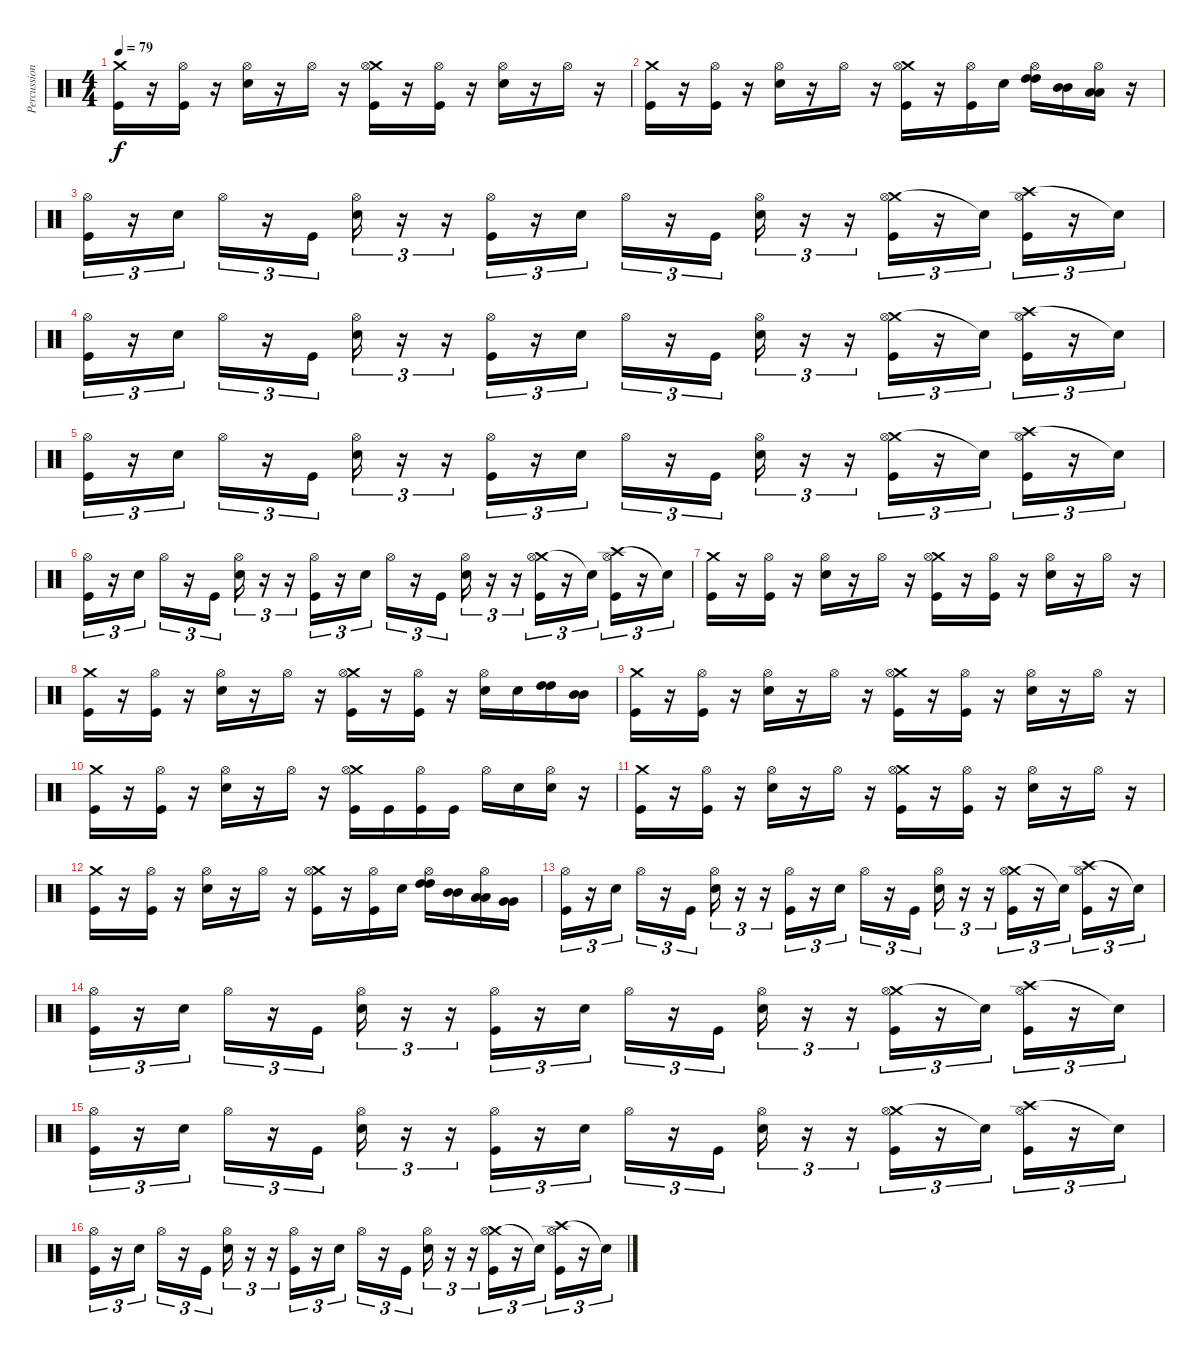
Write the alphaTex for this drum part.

\track ("Percussion" "Percussion") {instrument percussion}
\staff {score}
\articulation defaults
\ts (4 4)
\tempo 79
\clef neutral
\ks c
("Crash medium (hit)" "Kick (hit)").16{dy f} r.16 ("Hi-Hat (open)" "Kick (hit)").16 r.16 ("Hi-Hat (open)" "Electric Snare (hit)").16 r.16 "Hi-Hat (open)".16 r.16 ("Crash medium (hit)" "Hi-Hat (open)" "Kick (hit)").16 r.16 ("Hi-Hat (open)" "Kick (hit)").16 r.16 ("Hi-Hat (open)" "Electric Snare (hit)").16 r.16 "Hi-Hat (open)".16 r.16 |
("Crash medium (hit)" "Kick (hit)").16 r.16 ("Hi-Hat (open)" "Kick (hit)").16 r.16 ("Hi-Hat (open)" "Electric Snare (hit)").16 r.16 "Hi-Hat (open)".16 r.16 ("Crash medium (hit)" "Hi-Hat (open)" "Kick (hit)").16 r.16 ("Hi-Hat (open)" "Kick (hit)").16 "Electric Snare (hit)".16 ("Hi-Hat (open)" "High Tom (hit)" "High Tom (hit)").16 ("Mid Tom (hit)" "Mid Tom (hit)").16 ("Hi-Hat (open)" "Low Tom (hit)" "Low Tom (hit)").16 r.16 |
("Hi-Hat (open)" "Kick (hit)").16{tu (3 2)} r.16{tu (3 2)} "Electric Snare (hit)".16{tu (3 2)} "Hi-Hat (open)".16{tu (3 2)} r.16{tu (3 2)} "Kick (hit)".16{tu (3 2)} ("Hi-Hat (open)" "Electric Snare (hit)").16{tu (3 2)} r.16{tu (3 2)} r.16{tu (3 2)} ("Hi-Hat (open)" "Kick (hit)").16{tu (3 2)} r.16{tu (3 2)} "Electric Snare (hit)".16{tu (3 2)} "Hi-Hat (open)".16{tu (3 2)} r.16{tu (3 2)} "Kick (hit)".16{tu (3 2)} ("Hi-Hat (open)" "Electric Snare (hit)").16{tu (3 2)} r.16{tu (3 2)} r.16{tu (3 2)} ("Crash medium (hit)" "Hi-Hat (open)" "Kick (hit)").16{tu (3 2)} r.16{tu (3 2)} "Snare (hit)"{t}.16{tu (3 2)} ("Crash high (hit)" "Hi-Hat (open)" "Kick (hit)").16{tu (3 2)} r.16{tu (3 2)} "Snare (hit)"{t}.16{tu (3 2)} |
("Hi-Hat (open)" "Kick (hit)").16{tu (3 2)} r.16{tu (3 2)} "Electric Snare (hit)".16{tu (3 2)} "Hi-Hat (open)".16{tu (3 2)} r.16{tu (3 2)} "Kick (hit)".16{tu (3 2)} ("Hi-Hat (open)" "Electric Snare (hit)").16{tu (3 2)} r.16{tu (3 2)} r.16{tu (3 2)} ("Hi-Hat (open)" "Kick (hit)").16{tu (3 2)} r.16{tu (3 2)} "Electric Snare (hit)".16{tu (3 2)} "Hi-Hat (open)".16{tu (3 2)} r.16{tu (3 2)} "Kick (hit)".16{tu (3 2)} ("Hi-Hat (open)" "Electric Snare (hit)").16{tu (3 2)} r.16{tu (3 2)} r.16{tu (3 2)} ("Crash medium (hit)" "Hi-Hat (open)" "Kick (hit)").16{tu (3 2)} r.16{tu (3 2)} "Snare (hit)"{t}.16{tu (3 2)} ("Crash high (hit)" "Hi-Hat (open)" "Kick (hit)").16{tu (3 2)} r.16{tu (3 2)} "Snare (hit)"{t}.16{tu (3 2)} |
("Hi-Hat (open)" "Kick (hit)").16{tu (3 2)} r.16{tu (3 2)} "Electric Snare (hit)".16{tu (3 2)} "Hi-Hat (open)".16{tu (3 2)} r.16{tu (3 2)} "Kick (hit)".16{tu (3 2)} ("Hi-Hat (open)" "Electric Snare (hit)").16{tu (3 2)} r.16{tu (3 2)} r.16{tu (3 2)} ("Hi-Hat (open)" "Kick (hit)").16{tu (3 2)} r.16{tu (3 2)} "Electric Snare (hit)".16{tu (3 2)} "Hi-Hat (open)".16{tu (3 2)} r.16{tu (3 2)} "Kick (hit)".16{tu (3 2)} ("Hi-Hat (open)" "Electric Snare (hit)").16{tu (3 2)} r.16{tu (3 2)} r.16{tu (3 2)} ("Crash medium (hit)" "Hi-Hat (open)" "Kick (hit)").16{tu (3 2)} r.16{tu (3 2)} "Snare (hit)"{t}.16{tu (3 2)} ("Crash high (hit)" "Hi-Hat (open)" "Kick (hit)").16{tu (3 2)} r.16{tu (3 2)} "Snare (hit)"{t}.16{tu (3 2)} |
("Hi-Hat (open)" "Kick (hit)").16{tu (3 2)} r.16{tu (3 2)} "Electric Snare (hit)".16{tu (3 2)} "Hi-Hat (open)".16{tu (3 2)} r.16{tu (3 2)} "Kick (hit)".16{tu (3 2)} ("Hi-Hat (open)" "Electric Snare (hit)").16{tu (3 2)} r.16{tu (3 2)} r.16{tu (3 2)} ("Hi-Hat (open)" "Kick (hit)").16{tu (3 2)} r.16{tu (3 2)} "Electric Snare (hit)".16{tu (3 2)} "Hi-Hat (open)".16{tu (3 2)} r.16{tu (3 2)} "Kick (hit)".16{tu (3 2)} ("Hi-Hat (open)" "Electric Snare (hit)").16{tu (3 2)} r.16{tu (3 2)} r.16{tu (3 2)} ("Crash medium (hit)" "Hi-Hat (open)" "Kick (hit)").16{tu (3 2)} r.16{tu (3 2)} "Snare (hit)"{t}.16{tu (3 2)} ("Crash high (hit)" "Hi-Hat (open)" "Kick (hit)").16{tu (3 2)} r.16{tu (3 2)} "Snare (hit)"{t}.16{tu (3 2)} |
("Crash medium (hit)" "Kick (hit)").16 r.16 ("Hi-Hat (open)" "Kick (hit)").16 r.16 ("Hi-Hat (open)" "Electric Snare (hit)").16 r.16 "Hi-Hat (open)".16 r.16 ("Crash medium (hit)" "Hi-Hat (open)" "Kick (hit)").16 r.16 ("Hi-Hat (open)" "Kick (hit)").16 r.16 ("Hi-Hat (open)" "Electric Snare (hit)").16 r.16 "Hi-Hat (open)".16 r.16 |
("Crash medium (hit)" "Kick (hit)").16 r.16 ("Hi-Hat (open)" "Kick (hit)").16 r.16 ("Hi-Hat (open)" "Electric Snare (hit)").16 r.16 "Hi-Hat (open)".16 r.16 ("Crash medium (hit)" "Hi-Hat (open)" "Kick (hit)").16 r.16 ("Hi-Hat (open)" "Kick (hit)").16 r.16 ("Hi-Hat (open)" "Electric Snare (hit)").16 "Electric Snare (hit)".16 ("High Tom (hit)" "High Tom (hit)").16 ("Mid Tom (hit)" "Mid Tom (hit)").16 |
("Crash medium (hit)" "Kick (hit)").16 r.16 ("Hi-Hat (open)" "Kick (hit)").16 r.16 ("Hi-Hat (open)" "Electric Snare (hit)").16 r.16 "Hi-Hat (open)".16 r.16 ("Crash medium (hit)" "Hi-Hat (open)" "Kick (hit)").16 r.16 ("Hi-Hat (open)" "Kick (hit)").16 r.16 ("Hi-Hat (open)" "Electric Snare (hit)").16 r.16 "Hi-Hat (open)".16 r.16 |
("Crash medium (hit)" "Kick (hit)").16 r.16 ("Hi-Hat (open)" "Kick (hit)").16 r.16 ("Hi-Hat (open)" "Electric Snare (hit)").16 r.16 "Hi-Hat (open)".16 r.16 ("Crash medium (hit)" "Hi-Hat (open)" "Kick (hit)").16 "Kick (hit)".16 ("Hi-Hat (open)" "Kick (hit)").16 "Kick (hit)".16 "Hi-Hat (open)".16 "Electric Snare (hit)".16 ("Hi-Hat (open)" "Electric Snare (hit)").16 r.16 |
("Crash medium (hit)" "Kick (hit)").16 r.16 ("Hi-Hat (open)" "Kick (hit)").16 r.16 ("Hi-Hat (open)" "Electric Snare (hit)").16 r.16 "Hi-Hat (open)".16 r.16 ("Crash medium (hit)" "Hi-Hat (open)" "Kick (hit)").16 r.16 ("Hi-Hat (open)" "Kick (hit)").16 r.16 ("Hi-Hat (open)" "Electric Snare (hit)").16 r.16 "Hi-Hat (open)".16 r.16 |
("Crash medium (hit)" "Kick (hit)").16 r.16 ("Hi-Hat (open)" "Kick (hit)").16 r.16 ("Hi-Hat (open)" "Electric Snare (hit)").16 r.16 "Hi-Hat (open)".16 r.16 ("Crash medium (hit)" "Hi-Hat (open)" "Kick (hit)").16 r.16 ("Hi-Hat (open)" "Kick (hit)").16 "Electric Snare (hit)".16 ("Hi-Hat (open)" "High Tom (hit)" "High Tom (hit)").16 ("Mid Tom (hit)" "Mid Tom (hit)").16 ("Hi-Hat (open)" "Low Tom (hit)" "Low Tom (hit)").16 ("Very Low Tom (hit)" "Very Low Tom (hit)").16 |
("Hi-Hat (open)" "Kick (hit)").16{tu (3 2)} r.16{tu (3 2)} "Electric Snare (hit)".16{tu (3 2)} "Hi-Hat (open)".16{tu (3 2)} r.16{tu (3 2)} "Kick (hit)".16{tu (3 2)} ("Hi-Hat (open)" "Electric Snare (hit)").16{tu (3 2)} r.16{tu (3 2)} r.16{tu (3 2)} ("Hi-Hat (open)" "Kick (hit)").16{tu (3 2)} r.16{tu (3 2)} "Electric Snare (hit)".16{tu (3 2)} "Hi-Hat (open)".16{tu (3 2)} r.16{tu (3 2)} "Kick (hit)".16{tu (3 2)} ("Hi-Hat (open)" "Electric Snare (hit)").16{tu (3 2)} r.16{tu (3 2)} r.16{tu (3 2)} ("Crash medium (hit)" "Hi-Hat (open)" "Kick (hit)").16{tu (3 2)} r.16{tu (3 2)} "Snare (hit)"{t}.16{tu (3 2)} ("Crash high (hit)" "Hi-Hat (open)" "Kick (hit)").16{tu (3 2)} r.16{tu (3 2)} "Snare (hit)"{t}.16{tu (3 2)} |
("Hi-Hat (open)" "Kick (hit)").16{tu (3 2)} r.16{tu (3 2)} "Electric Snare (hit)".16{tu (3 2)} "Hi-Hat (open)".16{tu (3 2)} r.16{tu (3 2)} "Kick (hit)".16{tu (3 2)} ("Hi-Hat (open)" "Electric Snare (hit)").16{tu (3 2)} r.16{tu (3 2)} r.16{tu (3 2)} ("Hi-Hat (open)" "Kick (hit)").16{tu (3 2)} r.16{tu (3 2)} "Electric Snare (hit)".16{tu (3 2)} "Hi-Hat (open)".16{tu (3 2)} r.16{tu (3 2)} "Kick (hit)".16{tu (3 2)} ("Hi-Hat (open)" "Electric Snare (hit)").16{tu (3 2)} r.16{tu (3 2)} r.16{tu (3 2)} ("Crash medium (hit)" "Hi-Hat (open)" "Kick (hit)").16{tu (3 2)} r.16{tu (3 2)} "Snare (hit)"{t}.16{tu (3 2)} ("Crash high (hit)" "Hi-Hat (open)" "Kick (hit)").16{tu (3 2)} r.16{tu (3 2)} "Snare (hit)"{t}.16{tu (3 2)} |
("Hi-Hat (open)" "Kick (hit)").16{tu (3 2)} r.16{tu (3 2)} "Electric Snare (hit)".16{tu (3 2)} "Hi-Hat (open)".16{tu (3 2)} r.16{tu (3 2)} "Kick (hit)".16{tu (3 2)} ("Hi-Hat (open)" "Electric Snare (hit)").16{tu (3 2)} r.16{tu (3 2)} r.16{tu (3 2)} ("Hi-Hat (open)" "Kick (hit)").16{tu (3 2)} r.16{tu (3 2)} "Electric Snare (hit)".16{tu (3 2)} "Hi-Hat (open)".16{tu (3 2)} r.16{tu (3 2)} "Kick (hit)".16{tu (3 2)} ("Hi-Hat (open)" "Electric Snare (hit)").16{tu (3 2)} r.16{tu (3 2)} r.16{tu (3 2)} ("Crash medium (hit)" "Hi-Hat (open)" "Kick (hit)").16{tu (3 2)} r.16{tu (3 2)} "Snare (hit)"{t}.16{tu (3 2)} ("Crash high (hit)" "Hi-Hat (open)" "Kick (hit)").16{tu (3 2)} r.16{tu (3 2)} "Snare (hit)"{t}.16{tu (3 2)} |
("Hi-Hat (open)" "Kick (hit)").16{tu (3 2)} r.16{tu (3 2)} "Electric Snare (hit)".16{tu (3 2)} "Hi-Hat (open)".16{tu (3 2)} r.16{tu (3 2)} "Kick (hit)".16{tu (3 2)} ("Hi-Hat (open)" "Electric Snare (hit)").16{tu (3 2)} r.16{tu (3 2)} r.16{tu (3 2)} ("Hi-Hat (open)" "Kick (hit)").16{tu (3 2)} r.16{tu (3 2)} "Electric Snare (hit)".16{tu (3 2)} "Hi-Hat (open)".16{tu (3 2)} r.16{tu (3 2)} "Kick (hit)".16{tu (3 2)} ("Hi-Hat (open)" "Electric Snare (hit)").16{tu (3 2)} r.16{tu (3 2)} r.16{tu (3 2)} ("Crash medium (hit)" "Hi-Hat (open)" "Kick (hit)").16{tu (3 2)} r.16{tu (3 2)} "Snare (hit)"{t}.16{tu (3 2)} ("Crash high (hit)" "Hi-Hat (open)" "Kick (hit)").16{tu (3 2)} r.16{tu (3 2)} "Snare (hit)"{t}.16{tu (3 2)}
